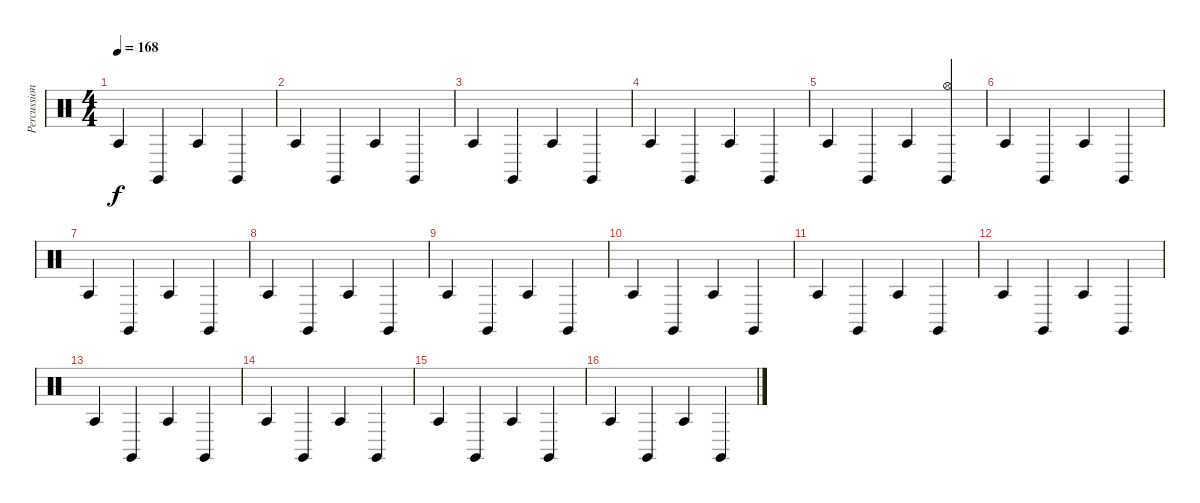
\track ("Percussion" "Percussion") {instrument percussion}
\staff {score}
\articulation defaults
\ts (4 4)
\tempo 168
\clef neutral
\ks c "Agogo tow (hit)".4{dy f} "Claves (hit)".4 "Agogo tow (hit)".4 "Claves (hit)".4
|
"Agogo tow (hit)".4 "Claves (hit)".4 "Agogo tow (hit)".4 "Claves (hit)".4 |
"Agogo tow (hit)".4 "Claves (hit)".4 "Agogo tow (hit)".4 "Claves (hit)".4 |
"Agogo tow (hit)".4 "Claves (hit)".4 "Agogo tow (hit)".4 "Claves (hit)".4 |
"Agogo tow (hit)".4 "Claves (hit)".4 "Agogo tow (hit)".4 ("Hi-Hat (open)" "Claves (hit)").4 |
"Agogo tow (hit)".4 "Claves (hit)".4 "Agogo tow (hit)".4 "Claves (hit)".4 |
"Agogo tow (hit)".4 "Claves (hit)".4 "Agogo tow (hit)".4 "Claves (hit)".4 |
"Agogo tow (hit)".4 "Claves (hit)".4 "Agogo tow (hit)".4 "Claves (hit)".4 |
"Agogo tow (hit)".4 "Claves (hit)".4 "Agogo tow (hit)".4 "Claves (hit)".4 |
"Agogo tow (hit)".4 "Claves (hit)".4 "Agogo tow (hit)".4 "Claves (hit)".4 |
"Agogo tow (hit)".4 "Claves (hit)".4 "Agogo tow (hit)".4 "Claves (hit)".4 |
"Agogo tow (hit)".4 "Claves (hit)".4 "Agogo tow (hit)".4 "Claves (hit)".4 |
"Agogo tow (hit)".4 "Claves (hit)".4 "Agogo tow (hit)".4 "Claves (hit)".4 |
"Agogo tow (hit)".4 "Claves (hit)".4 "Agogo tow (hit)".4 "Claves (hit)".4 |
"Agogo tow (hit)".4 "Claves (hit)".4 "Agogo tow (hit)".4 "Claves (hit)".4 |
"Agogo tow (hit)".4 "Claves (hit)".4 "Agogo tow (hit)".4 "Claves (hit)".4
